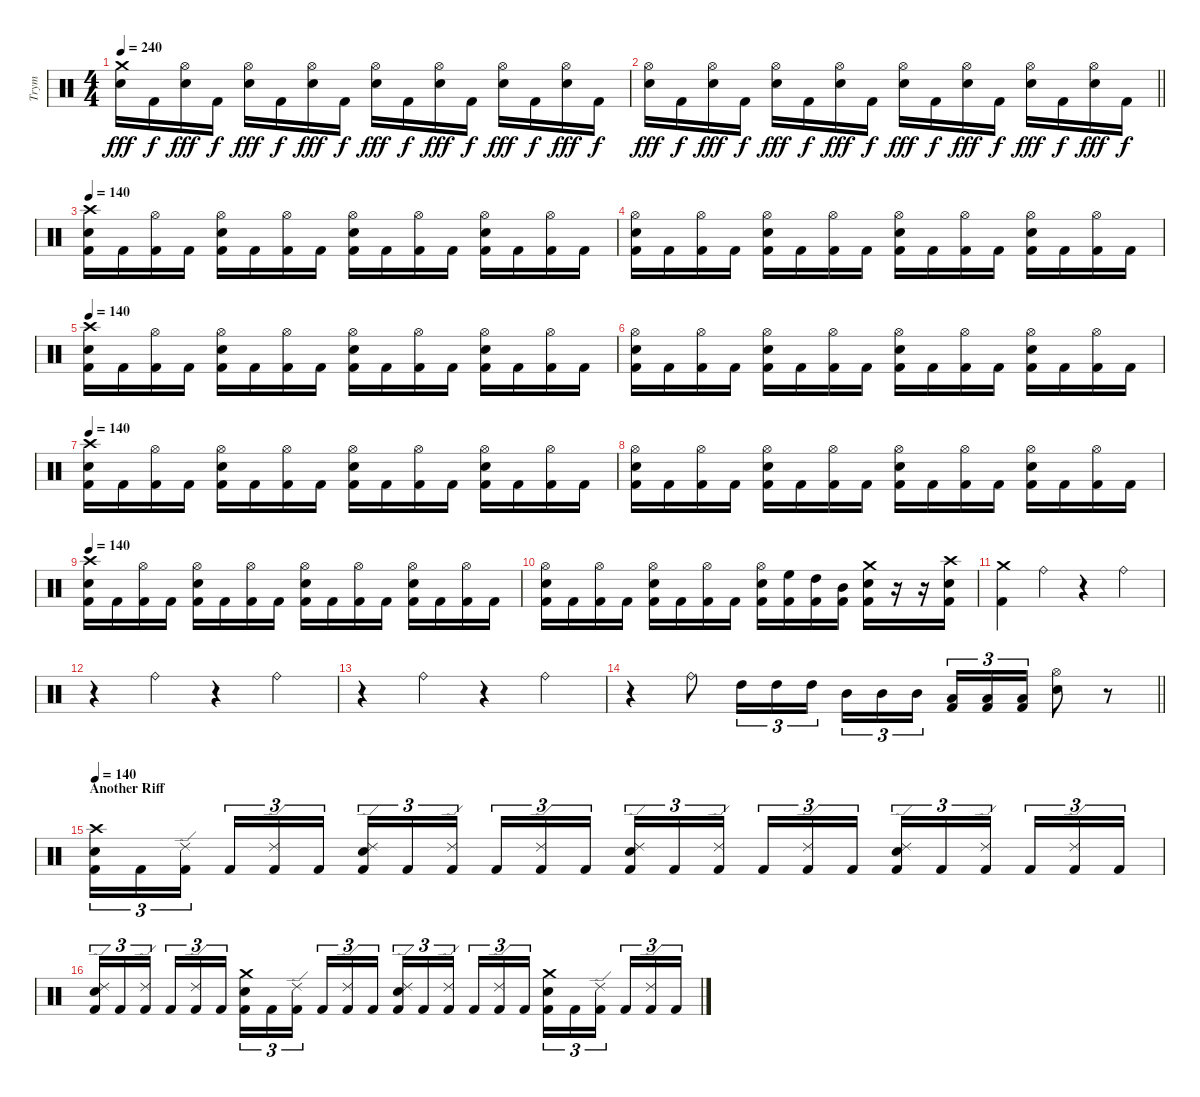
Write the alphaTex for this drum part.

\track ("Trym" "Trym") {instrument percussion}
\staff {score}
\articulation defaults
\ts (4 4)
\tempo 240
\clef neutral
\ks c
("Crash medium (hit)" "Electric Snare (hit)").16{dy fff} "Kick (hit) 2".16{dy f} ("Hi-Hat (open)" "Electric Snare (hit)").16{dy fff} "Kick (hit) 2".16{dy f} ("Hi-Hat (open)" "Electric Snare (hit)").16{dy fff} "Kick (hit) 2".16{dy f} ("Hi-Hat (open)" "Electric Snare (hit)").16{dy fff} "Kick (hit) 2".16{dy f} ("Hi-Hat (open)" "Electric Snare (hit)").16{dy fff} "Kick (hit) 2".16{dy f} ("Hi-Hat (open)" "Electric Snare (hit)").16{dy fff} "Kick (hit) 2".16{dy f} ("Hi-Hat (open)" "Electric Snare (hit)").16{dy fff} "Kick (hit) 2".16{dy f} ("Hi-Hat (open)" "Electric Snare (hit)").16{dy fff} "Kick (hit) 2".16{dy f} |
\barLineRight lightlight
("Hi-Hat (open)" "Electric Snare (hit)").16{dy fff} "Kick (hit) 2".16{dy f} ("Hi-Hat (open)" "Electric Snare (hit)").16{dy fff} "Kick (hit) 2".16{dy f} ("Hi-Hat (open)" "Electric Snare (hit)").16{dy fff} "Kick (hit) 2".16{dy f} ("Hi-Hat (open)" "Electric Snare (hit)").16{dy fff} "Kick (hit) 2".16{dy f} ("Hi-Hat (open)" "Electric Snare (hit)").16{dy fff} "Kick (hit) 2".16{dy f} ("Hi-Hat (open)" "Electric Snare (hit)").16{dy fff} "Kick (hit) 2".16{dy f} ("Hi-Hat (open)" "Electric Snare (hit)").16{dy fff} "Kick (hit) 2".16{dy f} ("Hi-Hat (open)" "Electric Snare (hit)").16{dy fff} "Kick (hit) 2".16{dy f} |
\section ("" "")
\tempo 140
("Crash high (hit)" "Electric Snare (hit)" "Kick (hit) 2").16 "Kick (hit) 2".16 ("Hi-Hat (open)" "Kick (hit) 2").16 "Kick (hit) 2".16 ("Hi-Hat (open)" "Electric Snare (hit)" "Kick (hit) 2").16 "Kick (hit) 2".16 ("Hi-Hat (open)" "Kick (hit) 2").16 "Kick (hit) 2".16 ("Hi-Hat (open)" "Electric Snare (hit)" "Kick (hit) 2").16 "Kick (hit) 2".16 ("Hi-Hat (open)" "Kick (hit) 2").16 "Kick (hit) 2".16 ("Hi-Hat (open)" "Electric Snare (hit)" "Kick (hit) 2").16 "Kick (hit) 2".16 ("Hi-Hat (open)" "Kick (hit) 2").16 "Kick (hit) 2".16 |
("Hi-Hat (open)" "Electric Snare (hit)" "Kick (hit) 2").16 "Kick (hit) 2".16 ("Hi-Hat (open)" "Kick (hit) 2").16 "Kick (hit) 2".16 ("Hi-Hat (open)" "Electric Snare (hit)" "Kick (hit) 2").16 "Kick (hit) 2".16 ("Hi-Hat (open)" "Kick (hit) 2").16 "Kick (hit) 2".16 ("Hi-Hat (open)" "Electric Snare (hit)" "Kick (hit) 2").16 "Kick (hit) 2".16 ("Hi-Hat (open)" "Kick (hit) 2").16 "Kick (hit) 2".16 ("Hi-Hat (open)" "Electric Snare (hit)" "Kick (hit) 2").16 "Kick (hit) 2".16 ("Hi-Hat (open)" "Kick (hit) 2").16 "Kick (hit) 2".16 |
\tempo 140
("Crash high (hit)" "Electric Snare (hit)" "Kick (hit) 2").16 "Kick (hit) 2".16 ("Hi-Hat (open)" "Kick (hit) 2").16 "Kick (hit) 2".16 ("Hi-Hat (open)" "Electric Snare (hit)" "Kick (hit) 2").16 "Kick (hit) 2".16 ("Hi-Hat (open)" "Kick (hit) 2").16 "Kick (hit) 2".16 ("Hi-Hat (open)" "Electric Snare (hit)" "Kick (hit) 2").16 "Kick (hit) 2".16 ("Hi-Hat (open)" "Kick (hit) 2").16 "Kick (hit) 2".16 ("Hi-Hat (open)" "Electric Snare (hit)" "Kick (hit) 2").16 "Kick (hit) 2".16 ("Hi-Hat (open)" "Kick (hit) 2").16 "Kick (hit) 2".16 |
("Hi-Hat (open)" "Electric Snare (hit)" "Kick (hit) 2").16 "Kick (hit) 2".16 ("Hi-Hat (open)" "Kick (hit) 2").16 "Kick (hit) 2".16 ("Hi-Hat (open)" "Electric Snare (hit)" "Kick (hit) 2").16 "Kick (hit) 2".16 ("Hi-Hat (open)" "Kick (hit) 2").16 "Kick (hit) 2".16 ("Hi-Hat (open)" "Electric Snare (hit)" "Kick (hit) 2").16 "Kick (hit) 2".16 ("Hi-Hat (open)" "Kick (hit) 2").16 "Kick (hit) 2".16 ("Hi-Hat (open)" "Electric Snare (hit)" "Kick (hit) 2").16 "Kick (hit) 2".16 ("Hi-Hat (open)" "Kick (hit) 2").16 "Kick (hit) 2".16 |
\tempo 140
("Crash high (hit)" "Electric Snare (hit)" "Kick (hit) 2").16 "Kick (hit) 2".16 ("Hi-Hat (open)" "Kick (hit) 2").16 "Kick (hit) 2".16 ("Hi-Hat (open)" "Electric Snare (hit)" "Kick (hit) 2").16 "Kick (hit) 2".16 ("Hi-Hat (open)" "Kick (hit) 2").16 "Kick (hit) 2".16 ("Hi-Hat (open)" "Electric Snare (hit)" "Kick (hit) 2").16 "Kick (hit) 2".16 ("Hi-Hat (open)" "Kick (hit) 2").16 "Kick (hit) 2".16 ("Hi-Hat (open)" "Electric Snare (hit)" "Kick (hit) 2").16 "Kick (hit) 2".16 ("Hi-Hat (open)" "Kick (hit) 2").16 "Kick (hit) 2".16 |
("Hi-Hat (open)" "Electric Snare (hit)" "Kick (hit) 2").16 "Kick (hit) 2".16 ("Hi-Hat (open)" "Kick (hit) 2").16 "Kick (hit) 2".16 ("Hi-Hat (open)" "Electric Snare (hit)" "Kick (hit) 2").16 "Kick (hit) 2".16 ("Hi-Hat (open)" "Kick (hit) 2").16 "Kick (hit) 2".16 ("Hi-Hat (open)" "Electric Snare (hit)" "Kick (hit) 2").16 "Kick (hit) 2".16 ("Hi-Hat (open)" "Kick (hit) 2").16 "Kick (hit) 2".16 ("Hi-Hat (open)" "Electric Snare (hit)" "Kick (hit) 2").16 "Kick (hit) 2".16 ("Hi-Hat (open)" "Kick (hit) 2").16 "Kick (hit) 2".16 |
\tempo 140
("Crash high (hit)" "Electric Snare (hit)" "Kick (hit) 2").16 "Kick (hit) 2".16 ("Hi-Hat (open)" "Kick (hit) 2").16 "Kick (hit) 2".16 ("Hi-Hat (open)" "Electric Snare (hit)" "Kick (hit) 2").16 "Kick (hit) 2".16 ("Hi-Hat (open)" "Kick (hit) 2").16 "Kick (hit) 2".16 ("Hi-Hat (open)" "Electric Snare (hit)" "Kick (hit) 2").16 "Kick (hit) 2".16 ("Hi-Hat (open)" "Kick (hit) 2").16 "Kick (hit) 2".16 ("Hi-Hat (open)" "Electric Snare (hit)" "Kick (hit) 2").16 "Kick (hit) 2".16 ("Hi-Hat (open)" "Kick (hit) 2").16 "Kick (hit) 2".16 |
("Hi-Hat (open)" "Electric Snare (hit)" "Kick (hit) 2").16 "Kick (hit) 2".16 ("Hi-Hat (open)" "Kick (hit) 2").16 "Kick (hit) 2".16 ("Hi-Hat (open)" "Electric Snare (hit)" "Kick (hit) 2").16 "Kick (hit) 2".16 ("Hi-Hat (open)" "Kick (hit) 2").16 "Kick (hit) 2".16 ("Hi-Hat (open)" "Electric Snare (hit)" "Kick (hit) 2").16 ("High Floor Tom (hit)" "Kick (hit) 2").16 ("High Tom (hit)" "Kick (hit) 2").16 ("Mid Tom (hit)" "Kick (hit) 2").16 ("Crash medium (hit)" "Electric Snare (hit)" "Kick (hit) 2").16 r.16 r.16 ("Crash high (hit)" "Electric Snare (hit)" "Kick (hit) 2").16 |
("Crash medium (hit)" "Kick (hit) 2").4 "Ride (bell)".4 r.4 "Ride (bell)".4 |
r.4 "Ride (bell)".4 r.4 "Ride (bell)".4 |
r.4 "Ride (bell)".4 r.4 "Ride (bell)".4 |
\barLineRight lightlight
r.4 "Ride (bell)".8 "High Tom (hit)".16{tu (3 2)} "High Tom (hit)".16{tu (3 2)} "High Tom (hit)".16{tu (3 2)} "Mid Tom (hit)".16{tu (3 2)} "Mid Tom (hit)".16{tu (3 2)} "Mid Tom (hit)".16{tu (3 2) beam splitsecondary} ("Low Tom (hit)" "Kick (hit) 2").16{tu (3 2)} ("Low Tom (hit)" "Kick (hit) 2").16{tu (3 2)} ("Low Tom (hit)" "Kick (hit) 2").16{tu (3 2)} ("Hi-Hat (open)" "Electric Snare (hit)").8 r.8 |
\section ("" "Another Riff")
\tempo 140
("Crash high (hit)" "Electric Snare (hit)" "Kick (hit) 2").16{tu (3 2)} "Kick (hit) 2".16{tu (3 2)} ("Ride (edge) 2" "Kick (hit) 2").16{tu (3 2) beam splitsecondary} "Kick (hit) 2".16{tu (3 2)} ("Ride (edge) 2" "Kick (hit) 2").16{tu (3 2)} "Kick (hit) 2".16{tu (3 2)} ("Ride (edge) 2" "Electric Snare (hit)" "Kick (hit) 2").16{tu (3 2)} "Kick (hit) 2".16{tu (3 2)} ("Ride (edge) 2" "Kick (hit) 2").16{tu (3 2) beam splitsecondary} "Kick (hit) 2".16{tu (3 2)} ("Ride (edge) 2" "Kick (hit) 2").16{tu (3 2)} "Kick (hit) 2".16{tu (3 2)} ("Ride (edge) 2" "Electric Snare (hit)" "Kick (hit) 2").16{tu (3 2)} "Kick (hit) 2".16{tu (3 2)} ("Ride (edge) 2" "Kick (hit) 2").16{tu (3 2) beam splitsecondary} "Kick (hit) 2".16{tu (3 2)} ("Ride (edge) 2" "Kick (hit) 2").16{tu (3 2)} "Kick (hit) 2".16{tu (3 2)} ("Ride (edge) 2" "Electric Snare (hit)" "Kick (hit) 2").16{tu (3 2)} "Kick (hit) 2".16{tu (3 2)} ("Ride (edge) 2" "Kick (hit) 2").16{tu (3 2) beam splitsecondary} "Kick (hit) 2".16{tu (3 2)} ("Ride (edge) 2" "Kick (hit) 2").16{tu (3 2)} "Kick (hit) 2".16{tu (3 2)} |
("Ride (edge) 2" "Electric Snare (hit)" "Kick (hit) 2").16{tu (3 2)} "Kick (hit) 2".16{tu (3 2)} ("Ride (edge) 2" "Kick (hit) 2").16{tu (3 2) beam splitsecondary} "Kick (hit) 2".16{tu (3 2)} ("Ride (edge) 2" "Kick (hit) 2").16{tu (3 2)} "Kick (hit) 2".16{tu (3 2)} ("Crash medium (hit)" "Electric Snare (hit)" "Kick (hit) 2").16{tu (3 2)} "Kick (hit) 2".16{tu (3 2)} ("Ride (edge) 2" "Kick (hit) 2").16{tu (3 2) beam splitsecondary} "Kick (hit) 2".16{tu (3 2)} ("Ride (edge) 2" "Kick (hit) 2").16{tu (3 2)} "Kick (hit) 2".16{tu (3 2)} ("Ride (edge) 2" "Electric Snare (hit)" "Kick (hit) 2").16{tu (3 2)} "Kick (hit) 2".16{tu (3 2)} ("Ride (edge) 2" "Kick (hit) 2").16{tu (3 2) beam splitsecondary} "Kick (hit) 2".16{tu (3 2)} ("Ride (edge) 2" "Kick (hit) 2").16{tu (3 2)} "Kick (hit) 2".16{tu (3 2)} ("Crash medium (hit)" "Electric Snare (hit)" "Kick (hit) 2").16{tu (3 2)} "Kick (hit) 2".16{tu (3 2)} ("Ride (edge) 2" "Kick (hit) 2").16{tu (3 2) beam splitsecondary} "Kick (hit) 2".16{tu (3 2)} ("Ride (edge) 2" "Kick (hit) 2").16{tu (3 2)} "Kick (hit) 2".16{tu (3 2)}
